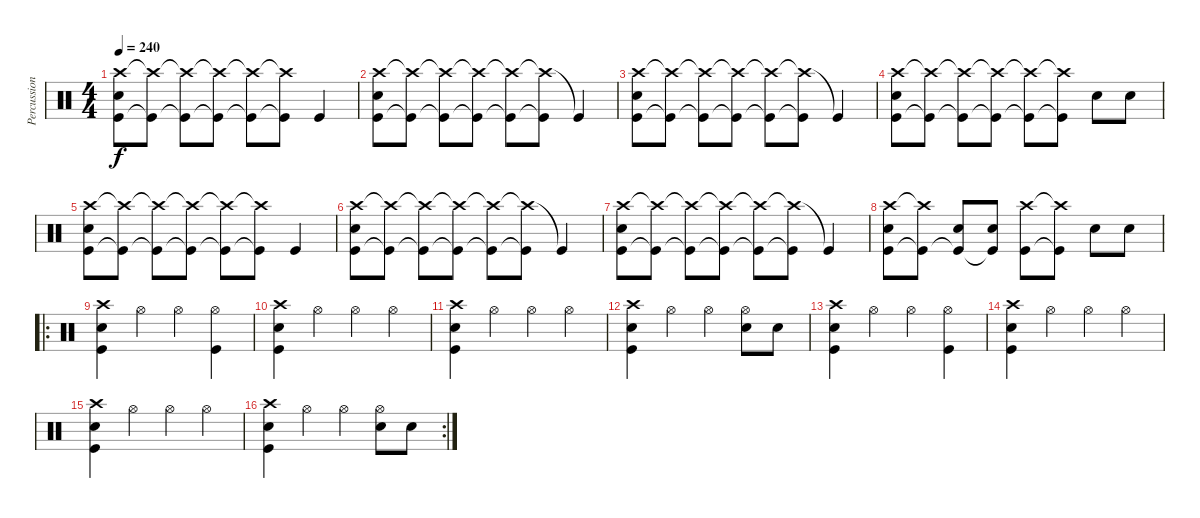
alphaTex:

\track ("Percussion" "Percussion") {instrument percussion}
\staff {score}
\articulation defaults
\ts (4 4)
\tempo 240
\clef neutral
\ks c
("Crash high (hit)" "Kick (hit)" "Snare (hit) 2").8{dy f} ("Crash high (hit)"{t} "Kick (hit)"{t}).8 ("Crash high (hit)"{t} "Kick (hit)"{t}).8 ("Crash high (hit)"{t} "Kick (hit)"{t}).8 ("Crash high (hit)"{t} "Kick (hit)"{t}).8 ("Crash high (hit)"{t} "Kick (hit)"{t}).8 "Kick (hit)".4 |
("Crash high (hit)" "Kick (hit)" "Snare (hit) 2").8 ("Crash high (hit)"{t} "Kick (hit)"{t}).8 ("Crash high (hit)"{t} "Kick (hit)"{t}).8 ("Crash high (hit)"{t} "Kick (hit)"{t}).8 ("Crash high (hit)"{t} "Kick (hit)"{t}).8 ("Crash high (hit)"{t} "Kick (hit)"{t}).8 "Kick (hit)"{t}.4 |
("Crash high (hit)" "Kick (hit)" "Snare (hit) 2").8 ("Crash high (hit)"{t} "Kick (hit)"{t}).8 ("Crash high (hit)"{t} "Kick (hit)"{t}).8 ("Crash high (hit)"{t} "Kick (hit)"{t}).8 ("Crash high (hit)"{t} "Kick (hit)"{t}).8 ("Crash high (hit)"{t} "Kick (hit)"{t}).8 "Kick (hit)"{t}.4 |
("Crash high (hit)" "Kick (hit)" "Snare (hit) 2").8 ("Crash high (hit)"{t} "Kick (hit)"{t}).8 ("Crash high (hit)"{t} "Kick (hit)"{t}).8 ("Crash high (hit)"{t} "Kick (hit)"{t}).8 ("Crash high (hit)"{t} "Kick (hit)"{t}).8 ("Crash high (hit)"{t} "Kick (hit)"{t}).8 "Snare (hit) 2".8 "Snare (hit) 2".8 |
("Crash high (hit)" "Kick (hit)" "Snare (hit) 2").8 ("Crash high (hit)"{t} "Kick (hit)"{t}).8 ("Crash high (hit)"{t} "Kick (hit)"{t}).8 ("Crash high (hit)"{t} "Kick (hit)"{t}).8 ("Crash high (hit)"{t} "Kick (hit)"{t}).8 ("Crash high (hit)"{t} "Kick (hit)"{t}).8 "Kick (hit)".4 |
("Crash high (hit)" "Kick (hit)" "Snare (hit) 2").8 ("Crash high (hit)"{t} "Kick (hit)"{t}).8 ("Crash high (hit)"{t} "Kick (hit)"{t}).8 ("Crash high (hit)"{t} "Kick (hit)"{t}).8 ("Crash high (hit)"{t} "Kick (hit)"{t}).8 ("Crash high (hit)"{t} "Kick (hit)"{t}).8 "Kick (hit)"{t}.4 |
("Crash high (hit)" "Kick (hit)" "Snare (hit) 2").8 ("Crash high (hit)"{t} "Kick (hit)"{t}).8 ("Crash high (hit)"{t} "Kick (hit)"{t}).8 ("Crash high (hit)"{t} "Kick (hit)"{t}).8 ("Crash high (hit)"{t} "Kick (hit)"{t}).8 ("Crash high (hit)"{t} "Kick (hit)"{t}).8 "Kick (hit)"{t}.4 |
("Crash high (hit)" "Kick (hit)" "Snare (hit) 2").8 ("Crash high (hit)"{t} "Kick (hit)"{t}).8 ("Snare (hit) 2" "Kick (hit)"{t}).8 ("Snare (hit) 2" "Kick (hit)"{t}).8 ("Crash high (hit)" "Kick (hit)").8 ("Crash high (hit)"{t} "Kick (hit)"{t}).8 "Snare (hit) 2".8 "Snare (hit) 2".8 |
\ro
("Crash high (hit)" "Kick (hit)" "Snare (hit) 2").4 "Hi-Hat (open)".4 "Hi-Hat (open)".4 ("Kick (hit)" "Hi-Hat (open)").4 |
("Crash high (hit)" "Kick (hit)" "Snare (hit) 2").4 "Hi-Hat (open)".4 "Hi-Hat (open)".4 "Hi-Hat (open)".4 |
("Crash high (hit)" "Kick (hit)" "Snare (hit) 2").4 "Hi-Hat (open)".4 "Hi-Hat (open)".4 "Hi-Hat (open)".4 |
("Crash high (hit)" "Kick (hit)" "Snare (hit) 2").4 "Hi-Hat (open)".4 "Hi-Hat (open)".4 ("Hi-Hat (open)" "Snare (hit) 2").8 "Snare (hit) 2".8 |
("Crash high (hit)" "Kick (hit)" "Snare (hit) 2").4 "Hi-Hat (open)".4 "Hi-Hat (open)".4 ("Kick (hit)" "Hi-Hat (open)").4 |
("Crash high (hit)" "Kick (hit)" "Snare (hit) 2").4 "Hi-Hat (open)".4 "Hi-Hat (open)".4 "Hi-Hat (open)".4 |
("Crash high (hit)" "Kick (hit)" "Snare (hit) 2").4 "Hi-Hat (open)".4 "Hi-Hat (open)".4 "Hi-Hat (open)".4 |
\rc 2
("Crash high (hit)" "Kick (hit)" "Snare (hit) 2").4 "Hi-Hat (open)".4 "Hi-Hat (open)".4 ("Hi-Hat (open)" "Snare (hit) 2").8 "Snare (hit) 2".8
